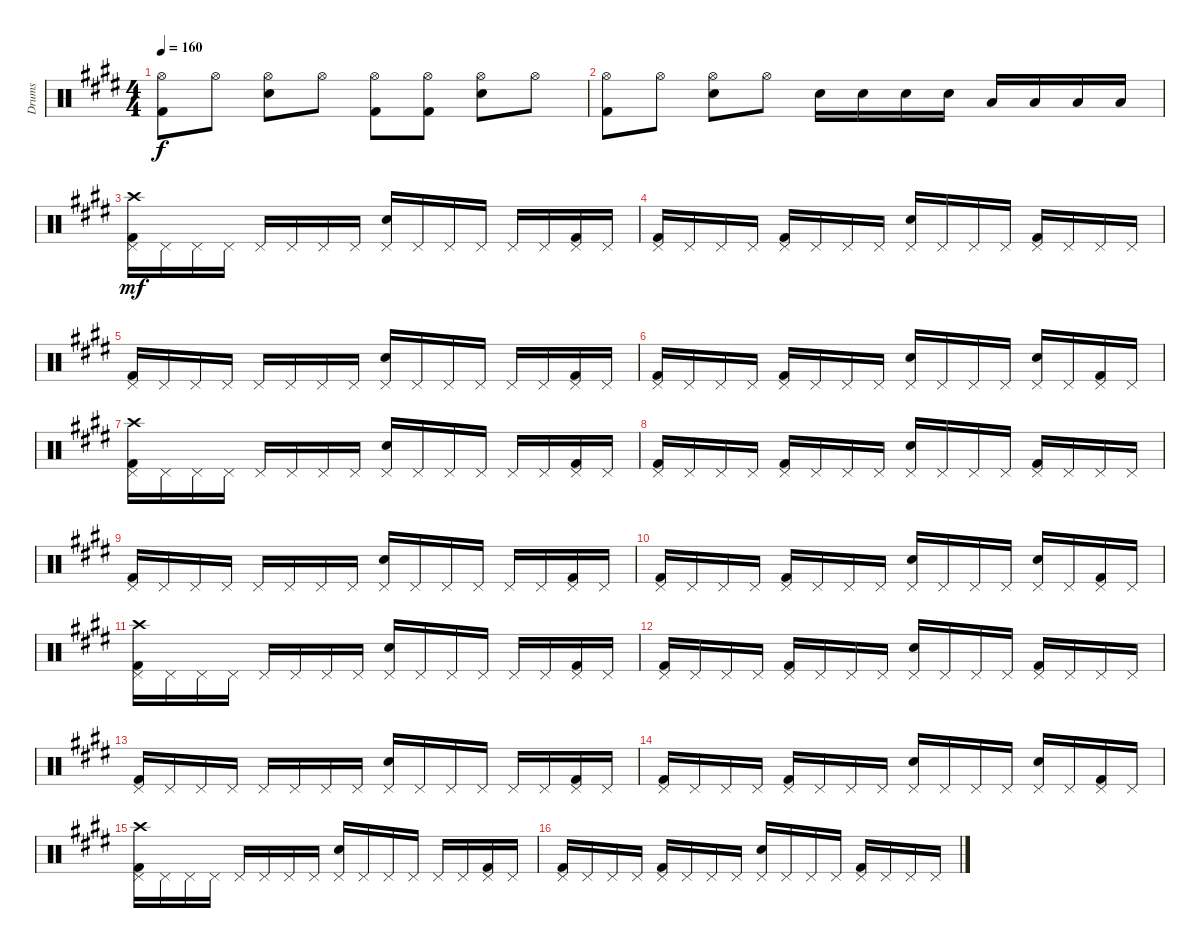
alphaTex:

\track ("Drums" "Drums") {instrument percussion}
\staff {score}
\articulation defaults
\ts (4 4)
\tempo 160
\clef neutral
\ks e
("Hi-Hat (open)" "Kick (hit) 2").8{dy f} "Hi-Hat (open)".8 ("Hi-Hat (open)" "Snare (hit) 2").8 "Hi-Hat (open)".8 ("Hi-Hat (open)" "Kick (hit) 2").8 ("Hi-Hat (open)" "Kick (hit) 2").8 ("Hi-Hat (open)" "Snare (hit) 2").8 "Hi-Hat (open)".8 |
("Hi-Hat (open)" "Kick (hit) 2").8 "Hi-Hat (open)".8 ("Hi-Hat (open)" "Snare (hit) 2").8 "Hi-Hat (open)".8 "Snare (hit) 2".16 "Snare (hit) 2".16 "Snare (hit) 2".16 "Snare (hit) 2".16 "Low Tom (hit)".16 "Low Tom (hit)".16 "Low Tom (hit)".16 "Low Tom (hit)".16 |
("Pedal Hi-Hat (hit)" "Crash high (hit)" "Kick (hit) 2").16{dy mf} "Pedal Hi-Hat (hit)".16 "Pedal Hi-Hat (hit)".16 "Pedal Hi-Hat (hit)".16 "Pedal Hi-Hat (hit)".16 "Pedal Hi-Hat (hit)".16 "Pedal Hi-Hat (hit)".16 "Pedal Hi-Hat (hit)".16 ("Pedal Hi-Hat (hit)" "Snare (hit) 2").16 "Pedal Hi-Hat (hit)".16 "Pedal Hi-Hat (hit)".16 "Pedal Hi-Hat (hit)".16 "Pedal Hi-Hat (hit)".16 "Pedal Hi-Hat (hit)".16 ("Pedal Hi-Hat (hit)" "Kick (hit) 2").16 "Pedal Hi-Hat (hit)".16 |
("Pedal Hi-Hat (hit)" "Kick (hit) 2").16 "Pedal Hi-Hat (hit)".16 "Pedal Hi-Hat (hit)".16 "Pedal Hi-Hat (hit)".16 ("Pedal Hi-Hat (hit)" "Kick (hit) 2").16 "Pedal Hi-Hat (hit)".16 "Pedal Hi-Hat (hit)".16 "Pedal Hi-Hat (hit)".16 ("Pedal Hi-Hat (hit)" "Snare (hit) 2").16 "Pedal Hi-Hat (hit)".16 "Pedal Hi-Hat (hit)".16 "Pedal Hi-Hat (hit)".16 ("Pedal Hi-Hat (hit)" "Kick (hit) 2").16 "Pedal Hi-Hat (hit)".16 "Pedal Hi-Hat (hit)".16 "Pedal Hi-Hat (hit)".16 |
("Pedal Hi-Hat (hit)" "Kick (hit) 2").16 "Pedal Hi-Hat (hit)".16 "Pedal Hi-Hat (hit)".16 "Pedal Hi-Hat (hit)".16 "Pedal Hi-Hat (hit)".16 "Pedal Hi-Hat (hit)".16 "Pedal Hi-Hat (hit)".16 "Pedal Hi-Hat (hit)".16 ("Pedal Hi-Hat (hit)" "Snare (hit) 2").16 "Pedal Hi-Hat (hit)".16 "Pedal Hi-Hat (hit)".16 "Pedal Hi-Hat (hit)".16 "Pedal Hi-Hat (hit)".16 "Pedal Hi-Hat (hit)".16 ("Pedal Hi-Hat (hit)" "Kick (hit) 2").16 "Pedal Hi-Hat (hit)".16 |
("Pedal Hi-Hat (hit)" "Kick (hit) 2").16 "Pedal Hi-Hat (hit)".16 "Pedal Hi-Hat (hit)".16 "Pedal Hi-Hat (hit)".16 ("Pedal Hi-Hat (hit)" "Kick (hit) 2").16 "Pedal Hi-Hat (hit)".16 "Pedal Hi-Hat (hit)".16 "Pedal Hi-Hat (hit)".16 ("Pedal Hi-Hat (hit)" "Snare (hit) 2").16 "Pedal Hi-Hat (hit)".16 "Pedal Hi-Hat (hit)".16 "Pedal Hi-Hat (hit)".16 ("Pedal Hi-Hat (hit)" "Snare (hit) 2").16 "Pedal Hi-Hat (hit)".16 ("Pedal Hi-Hat (hit)" "Kick (hit) 2").16 "Pedal Hi-Hat (hit)".16 |
("Pedal Hi-Hat (hit)" "Crash high (hit)" "Kick (hit) 2").16 "Pedal Hi-Hat (hit)".16 "Pedal Hi-Hat (hit)".16 "Pedal Hi-Hat (hit)".16 "Pedal Hi-Hat (hit)".16 "Pedal Hi-Hat (hit)".16 "Pedal Hi-Hat (hit)".16 "Pedal Hi-Hat (hit)".16 ("Pedal Hi-Hat (hit)" "Snare (hit) 2").16 "Pedal Hi-Hat (hit)".16 "Pedal Hi-Hat (hit)".16 "Pedal Hi-Hat (hit)".16 "Pedal Hi-Hat (hit)".16 "Pedal Hi-Hat (hit)".16 ("Pedal Hi-Hat (hit)" "Kick (hit) 2").16 "Pedal Hi-Hat (hit)".16 |
("Pedal Hi-Hat (hit)" "Kick (hit) 2").16 "Pedal Hi-Hat (hit)".16 "Pedal Hi-Hat (hit)".16 "Pedal Hi-Hat (hit)".16 ("Pedal Hi-Hat (hit)" "Kick (hit) 2").16 "Pedal Hi-Hat (hit)".16 "Pedal Hi-Hat (hit)".16 "Pedal Hi-Hat (hit)".16 ("Pedal Hi-Hat (hit)" "Snare (hit) 2").16 "Pedal Hi-Hat (hit)".16 "Pedal Hi-Hat (hit)".16 "Pedal Hi-Hat (hit)".16 ("Pedal Hi-Hat (hit)" "Kick (hit) 2").16 "Pedal Hi-Hat (hit)".16 "Pedal Hi-Hat (hit)".16 "Pedal Hi-Hat (hit)".16 |
("Pedal Hi-Hat (hit)" "Kick (hit) 2").16 "Pedal Hi-Hat (hit)".16 "Pedal Hi-Hat (hit)".16 "Pedal Hi-Hat (hit)".16 "Pedal Hi-Hat (hit)".16 "Pedal Hi-Hat (hit)".16 "Pedal Hi-Hat (hit)".16 "Pedal Hi-Hat (hit)".16 ("Pedal Hi-Hat (hit)" "Snare (hit) 2").16 "Pedal Hi-Hat (hit)".16 "Pedal Hi-Hat (hit)".16 "Pedal Hi-Hat (hit)".16 "Pedal Hi-Hat (hit)".16 "Pedal Hi-Hat (hit)".16 ("Pedal Hi-Hat (hit)" "Kick (hit) 2").16 "Pedal Hi-Hat (hit)".16 |
("Pedal Hi-Hat (hit)" "Kick (hit) 2").16 "Pedal Hi-Hat (hit)".16 "Pedal Hi-Hat (hit)".16 "Pedal Hi-Hat (hit)".16 ("Pedal Hi-Hat (hit)" "Kick (hit) 2").16 "Pedal Hi-Hat (hit)".16 "Pedal Hi-Hat (hit)".16 "Pedal Hi-Hat (hit)".16 ("Pedal Hi-Hat (hit)" "Snare (hit) 2").16 "Pedal Hi-Hat (hit)".16 "Pedal Hi-Hat (hit)".16 "Pedal Hi-Hat (hit)".16 ("Pedal Hi-Hat (hit)" "Snare (hit) 2").16 "Pedal Hi-Hat (hit)".16 ("Pedal Hi-Hat (hit)" "Kick (hit) 2").16 "Pedal Hi-Hat (hit)".16 |
("Pedal Hi-Hat (hit)" "Crash high (hit)" "Kick (hit) 2").16 "Pedal Hi-Hat (hit)".16 "Pedal Hi-Hat (hit)".16 "Pedal Hi-Hat (hit)".16 "Pedal Hi-Hat (hit)".16 "Pedal Hi-Hat (hit)".16 "Pedal Hi-Hat (hit)".16 "Pedal Hi-Hat (hit)".16 ("Pedal Hi-Hat (hit)" "Snare (hit) 2").16 "Pedal Hi-Hat (hit)".16 "Pedal Hi-Hat (hit)".16 "Pedal Hi-Hat (hit)".16 "Pedal Hi-Hat (hit)".16 "Pedal Hi-Hat (hit)".16 ("Pedal Hi-Hat (hit)" "Kick (hit) 2").16 "Pedal Hi-Hat (hit)".16 |
("Pedal Hi-Hat (hit)" "Kick (hit) 2").16 "Pedal Hi-Hat (hit)".16 "Pedal Hi-Hat (hit)".16 "Pedal Hi-Hat (hit)".16 ("Pedal Hi-Hat (hit)" "Kick (hit) 2").16 "Pedal Hi-Hat (hit)".16 "Pedal Hi-Hat (hit)".16 "Pedal Hi-Hat (hit)".16 ("Pedal Hi-Hat (hit)" "Snare (hit) 2").16 "Pedal Hi-Hat (hit)".16 "Pedal Hi-Hat (hit)".16 "Pedal Hi-Hat (hit)".16 ("Pedal Hi-Hat (hit)" "Kick (hit) 2").16 "Pedal Hi-Hat (hit)".16 "Pedal Hi-Hat (hit)".16 "Pedal Hi-Hat (hit)".16 |
("Pedal Hi-Hat (hit)" "Kick (hit) 2").16 "Pedal Hi-Hat (hit)".16 "Pedal Hi-Hat (hit)".16 "Pedal Hi-Hat (hit)".16 "Pedal Hi-Hat (hit)".16 "Pedal Hi-Hat (hit)".16 "Pedal Hi-Hat (hit)".16 "Pedal Hi-Hat (hit)".16 ("Pedal Hi-Hat (hit)" "Snare (hit) 2").16 "Pedal Hi-Hat (hit)".16 "Pedal Hi-Hat (hit)".16 "Pedal Hi-Hat (hit)".16 "Pedal Hi-Hat (hit)".16 "Pedal Hi-Hat (hit)".16 ("Pedal Hi-Hat (hit)" "Kick (hit) 2").16 "Pedal Hi-Hat (hit)".16 |
("Pedal Hi-Hat (hit)" "Kick (hit) 2").16 "Pedal Hi-Hat (hit)".16 "Pedal Hi-Hat (hit)".16 "Pedal Hi-Hat (hit)".16 ("Pedal Hi-Hat (hit)" "Kick (hit) 2").16 "Pedal Hi-Hat (hit)".16 "Pedal Hi-Hat (hit)".16 "Pedal Hi-Hat (hit)".16 ("Pedal Hi-Hat (hit)" "Snare (hit) 2").16 "Pedal Hi-Hat (hit)".16 "Pedal Hi-Hat (hit)".16 "Pedal Hi-Hat (hit)".16 ("Pedal Hi-Hat (hit)" "Snare (hit) 2").16 "Pedal Hi-Hat (hit)".16 ("Pedal Hi-Hat (hit)" "Kick (hit) 2").16 "Pedal Hi-Hat (hit)".16 |
("Pedal Hi-Hat (hit)" "Crash high (hit)" "Kick (hit) 2").16 "Pedal Hi-Hat (hit)".16 "Pedal Hi-Hat (hit)".16 "Pedal Hi-Hat (hit)".16 "Pedal Hi-Hat (hit)".16 "Pedal Hi-Hat (hit)".16 "Pedal Hi-Hat (hit)".16 "Pedal Hi-Hat (hit)".16 ("Pedal Hi-Hat (hit)" "Snare (hit) 2").16 "Pedal Hi-Hat (hit)".16 "Pedal Hi-Hat (hit)".16 "Pedal Hi-Hat (hit)".16 "Pedal Hi-Hat (hit)".16 "Pedal Hi-Hat (hit)".16 ("Pedal Hi-Hat (hit)" "Kick (hit) 2").16 "Pedal Hi-Hat (hit)".16 |
("Pedal Hi-Hat (hit)" "Kick (hit) 2").16 "Pedal Hi-Hat (hit)".16 "Pedal Hi-Hat (hit)".16 "Pedal Hi-Hat (hit)".16 ("Pedal Hi-Hat (hit)" "Kick (hit) 2").16 "Pedal Hi-Hat (hit)".16 "Pedal Hi-Hat (hit)".16 "Pedal Hi-Hat (hit)".16 ("Pedal Hi-Hat (hit)" "Snare (hit) 2").16 "Pedal Hi-Hat (hit)".16 "Pedal Hi-Hat (hit)".16 "Pedal Hi-Hat (hit)".16 ("Pedal Hi-Hat (hit)" "Kick (hit) 2").16 "Pedal Hi-Hat (hit)".16 "Pedal Hi-Hat (hit)".16 "Pedal Hi-Hat (hit)".16
